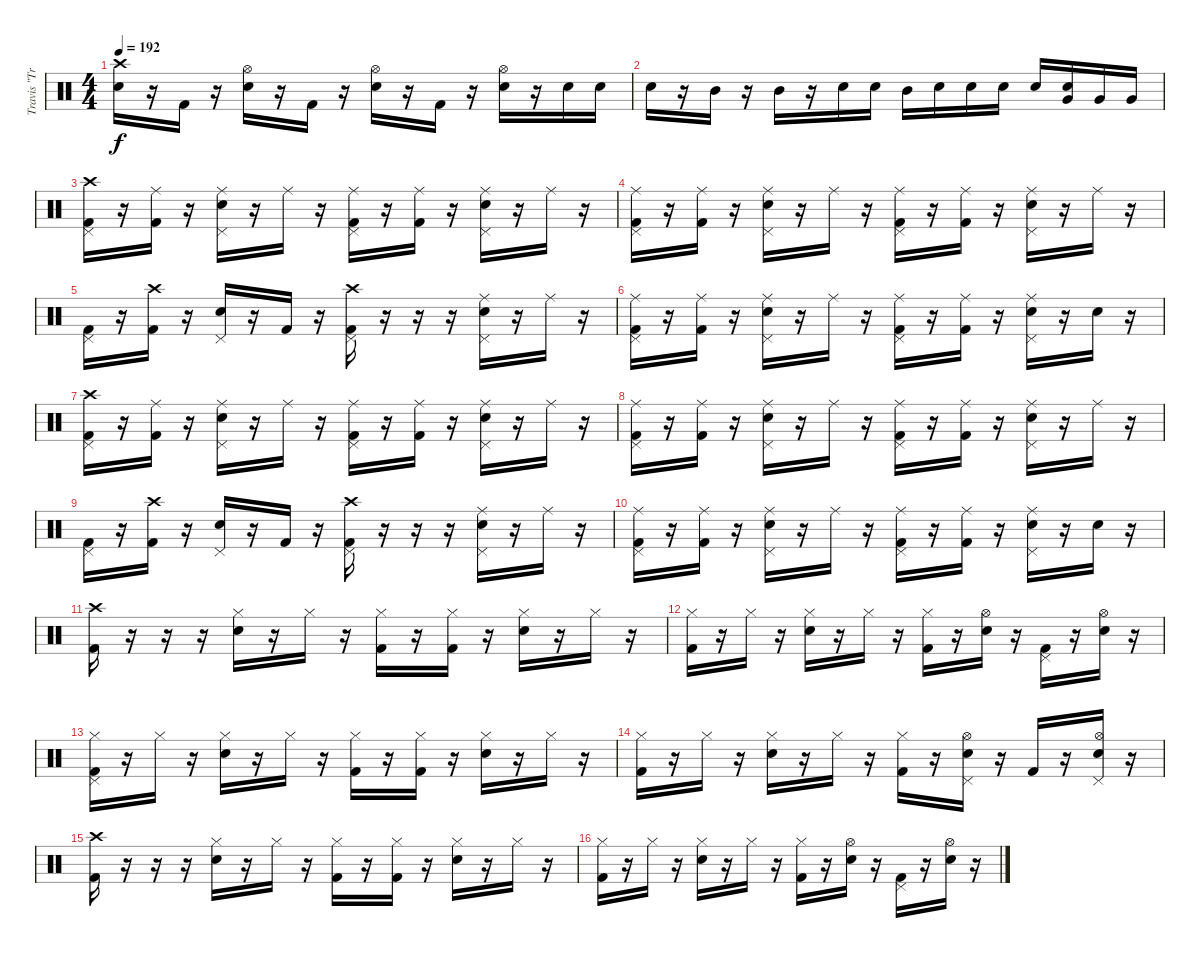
\track ("Travis \"Trevor\" Barker" "Travis \"Tr") {instrument percussion}
\staff {score}
\articulation defaults
\ts (4 4)
\tempo 192
\clef neutral
\ks c
("Crash high (hit)" "Snare (hit) 2").16{dy f} r.16 "Kick (hit) 2".16 r.16 ("Hi-Hat (open)" "Snare (hit) 2").16 r.16 "Kick (hit) 2".16 r.16 ("Hi-Hat (open)" "Snare (hit) 2").16 r.16 "Kick (hit) 2".16 r.16 ("Hi-Hat (open)" "Snare (hit) 2").16 r.16 "Snare (hit) 2".16 "Snare (hit) 2".16 |
"Snare (hit) 2".16 r.16 "Mid Tom (hit)".16 r.16 "Mid Tom (hit)".16 r.16 "Snare (hit) 2".16 "Snare (hit) 2".16 "Mid Tom (hit)".16 "Snare (hit) 2".16 "Snare (hit) 2".16 "Snare (hit) 2".16 "Snare (hit) 2".16 ("Snare (hit) 2" "Very Low Tom (hit)").16 "Very Low Tom (hit)".16 "Very Low Tom (hit)".16 |
("Crash high (hit)" "Pedal Hi-Hat (hit)" "Kick (hit) 2").16 r.16 ("Ride (middle)" "Kick (hit) 2").16 r.16 ("Ride (middle)" "Pedal Hi-Hat (hit)" "Snare (hit) 2").16 r.16 "Ride (middle)".16 r.16 ("Ride (middle)" "Pedal Hi-Hat (hit)" "Kick (hit) 2").16 r.16 ("Ride (middle)" "Kick (hit) 2").16 r.16 ("Ride (middle)" "Pedal Hi-Hat (hit)" "Snare (hit) 2").16 r.16 "Ride (middle)".16 r.16 |
("Ride (middle)" "Pedal Hi-Hat (hit)" "Kick (hit) 2").16 r.16 ("Ride (middle)" "Kick (hit) 2").16 r.16 ("Ride (middle)" "Pedal Hi-Hat (hit)" "Snare (hit) 2").16 r.16 "Ride (middle)".16 r.16 ("Ride (middle)" "Pedal Hi-Hat (hit)" "Kick (hit) 2").16 r.16 ("Ride (middle)" "Kick (hit) 2").16 r.16 ("Ride (middle)" "Pedal Hi-Hat (hit)" "Snare (hit) 2").16 r.16 "Ride (middle)".16 r.16 |
("Pedal Hi-Hat (hit)" "Kick (hit) 2").16 r.16 ("Crash high (hit)" "Kick (hit) 2").16 r.16 ("Pedal Hi-Hat (hit)" "Snare (hit) 2").16 r.16 "Kick (hit) 2".16 r.16 ("Crash high (hit)" "Pedal Hi-Hat (hit)" "Kick (hit) 2").16 r.16 r.16 r.16 ("Ride (middle)" "Pedal Hi-Hat (hit)" "Snare (hit) 2").16 r.16 "Ride (middle)".16 r.16 |
("Ride (middle)" "Pedal Hi-Hat (hit)" "Kick (hit) 2").16 r.16 ("Ride (middle)" "Kick (hit) 2").16 r.16 ("Ride (middle)" "Pedal Hi-Hat (hit)" "Snare (hit) 2").16 r.16 "Ride (middle)".16 r.16 ("Ride (middle)" "Pedal Hi-Hat (hit)" "Kick (hit) 2").16 r.16 ("Ride (middle)" "Kick (hit) 2").16 r.16 ("Ride (middle)" "Pedal Hi-Hat (hit)" "Snare (hit) 2").16 r.16 "Snare (hit) 2".16 r.16 |
("Crash high (hit)" "Pedal Hi-Hat (hit)" "Kick (hit) 2").16 r.16 ("Ride (middle)" "Kick (hit) 2").16 r.16 ("Ride (middle)" "Pedal Hi-Hat (hit)" "Snare (hit) 2").16 r.16 "Ride (middle)".16 r.16 ("Ride (middle)" "Pedal Hi-Hat (hit)" "Kick (hit) 2").16 r.16 ("Ride (middle)" "Kick (hit) 2").16 r.16 ("Ride (middle)" "Pedal Hi-Hat (hit)" "Snare (hit) 2").16 r.16 "Ride (middle)".16 r.16 |
("Ride (middle)" "Pedal Hi-Hat (hit)" "Kick (hit) 2").16 r.16 ("Ride (middle)" "Kick (hit) 2").16 r.16 ("Ride (middle)" "Pedal Hi-Hat (hit)" "Snare (hit) 2").16 r.16 "Ride (middle)".16 r.16 ("Ride (middle)" "Pedal Hi-Hat (hit)" "Kick (hit) 2").16 r.16 ("Ride (middle)" "Kick (hit) 2").16 r.16 ("Ride (middle)" "Pedal Hi-Hat (hit)" "Snare (hit) 2").16 r.16 "Ride (middle)".16 r.16 |
("Pedal Hi-Hat (hit)" "Kick (hit) 2").16 r.16 ("Crash high (hit)" "Kick (hit) 2").16 r.16 ("Pedal Hi-Hat (hit)" "Snare (hit) 2").16 r.16 "Kick (hit) 2".16 r.16 ("Crash high (hit)" "Pedal Hi-Hat (hit)" "Kick (hit) 2").16 r.16 r.16 r.16 ("Ride (middle)" "Pedal Hi-Hat (hit)" "Snare (hit) 2").16 r.16 "Ride (middle)".16 r.16 |
("Ride (middle)" "Pedal Hi-Hat (hit)" "Kick (hit) 2").16 r.16 ("Ride (middle)" "Kick (hit) 2").16 r.16 ("Ride (middle)" "Pedal Hi-Hat (hit)" "Snare (hit) 2").16 r.16 "Ride (middle)".16 r.16 ("Ride (middle)" "Pedal Hi-Hat (hit)" "Kick (hit) 2").16 r.16 ("Ride (middle)" "Kick (hit) 2").16 r.16 ("Ride (middle)" "Pedal Hi-Hat (hit)" "Snare (hit) 2").16 r.16 "Snare (hit) 2".16 r.16 |
("Crash high (hit)" "Kick (hit) 2").16 r.16 r.16 r.16 ("Hi-Hat (closed)" "Snare (hit) 2").16 r.16 "Hi-Hat (closed)".16 r.16 ("Hi-Hat (closed)" "Kick (hit) 2").16 r.16 ("Hi-Hat (closed)" "Kick (hit) 2").16 r.16 ("Hi-Hat (closed)" "Snare (hit) 2").16 r.16 "Hi-Hat (closed)".16 r.16 |
("Hi-Hat (closed)" "Kick (hit) 2").16 r.16 "Hi-Hat (closed)".16 r.16 ("Hi-Hat (closed)" "Snare (hit) 2").16 r.16 "Hi-Hat (closed)".16 r.16 ("Hi-Hat (closed)" "Kick (hit) 2").16 r.16 ("Hi-Hat (open)" "Snare (hit) 2").16 r.16 ("Pedal Hi-Hat (hit)" "Kick (hit) 2").16 r.16 ("Hi-Hat (open)" "Snare (hit) 2").16 r.16 |
("Hi-Hat (closed)" "Pedal Hi-Hat (hit)" "Kick (hit) 2").16 r.16 "Hi-Hat (closed)".16 r.16 ("Hi-Hat (closed)" "Snare (hit) 2").16 r.16 "Hi-Hat (closed)".16 r.16 ("Hi-Hat (closed)" "Kick (hit) 2").16 r.16 ("Hi-Hat (closed)" "Kick (hit) 2").16 r.16 ("Hi-Hat (closed)" "Snare (hit) 2").16 r.16 "Hi-Hat (closed)".16 r.16 |
("Hi-Hat (closed)" "Kick (hit) 2").16 r.16 "Hi-Hat (closed)".16 r.16 ("Hi-Hat (closed)" "Snare (hit) 2").16 r.16 "Hi-Hat (closed)".16 r.16 ("Hi-Hat (closed)" "Kick (hit) 2").16 r.16 ("Hi-Hat (open)" "Pedal Hi-Hat (hit)" "Snare (hit) 2").16 r.16 "Kick (hit) 2".16 r.16 ("Hi-Hat (open)" "Pedal Hi-Hat (hit)" "Snare (hit) 2").16 r.16 |
("Crash high (hit)" "Kick (hit) 2").16 r.16 r.16 r.16 ("Hi-Hat (closed)" "Snare (hit) 2").16 r.16 "Hi-Hat (closed)".16 r.16 ("Hi-Hat (closed)" "Kick (hit) 2").16 r.16 ("Hi-Hat (closed)" "Kick (hit) 2").16 r.16 ("Hi-Hat (closed)" "Snare (hit) 2").16 r.16 "Hi-Hat (closed)".16 r.16 |
("Hi-Hat (closed)" "Kick (hit) 2").16 r.16 "Hi-Hat (closed)".16 r.16 ("Hi-Hat (closed)" "Snare (hit) 2").16 r.16 "Hi-Hat (closed)".16 r.16 ("Hi-Hat (closed)" "Kick (hit) 2").16 r.16 ("Hi-Hat (open)" "Snare (hit) 2").16 r.16 ("Pedal Hi-Hat (hit)" "Kick (hit) 2").16 r.16 ("Hi-Hat (open)" "Snare (hit) 2").16 r.16
